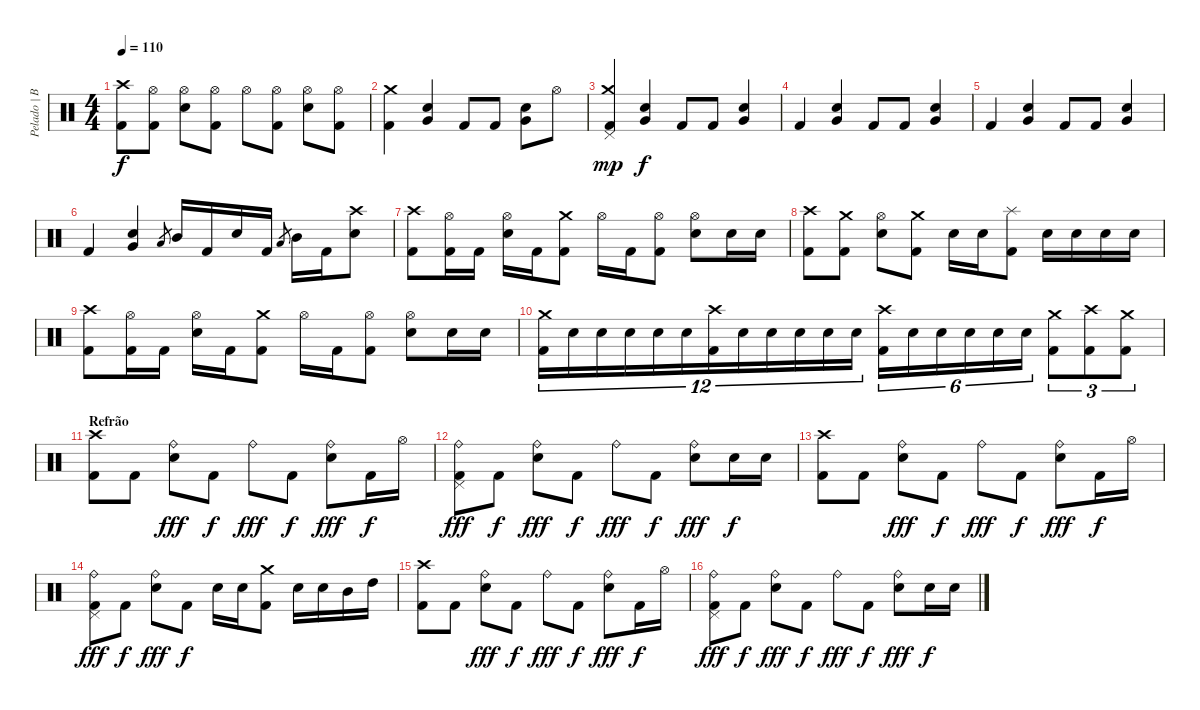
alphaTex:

\track ("Pelado | Bateria" "Pelado | B") {instrument percussion}
\staff {score}
\articulation defaults
\ts (4 4)
\tempo 110
\clef neutral
\ks c
("Crash high (hit)" "Kick (hit) 2").8{dy f} ("Hi-Hat (open)" "Kick (hit) 2").8 ("Hi-Hat (open)" "Snare (hit) 2").8 ("Hi-Hat (open)" "Kick (hit) 2").8 "Hi-Hat (open)".8 ("Hi-Hat (open)" "Kick (hit) 2").8 ("Hi-Hat (open)" "Snare (hit) 2").8 ("Hi-Hat (open)" "Kick (hit) 2").8 |
("Crash medium (hit)" "Kick (hit) 2").4 ("Very Low Tom (hit)" "Snare (hit) 2").4 "Kick (hit) 2".8 "Kick (hit) 2".8 ("Very Low Tom (hit)" "Snare (hit) 2").8 "Hi-Hat (open)".8 |
("Crash medium (hit)" "Pedal Hi-Hat (hit)" "Kick (hit) 2").4{dy mp} ("Very Low Tom (hit)" "Snare (hit) 2").4{dy f} "Kick (hit) 2".8 "Kick (hit) 2".8 ("Very Low Tom (hit)" "Snare (hit) 2").4 |
"Kick (hit) 2".4 ("Very Low Tom (hit)" "Snare (hit) 2").4 "Kick (hit) 2".8 "Kick (hit) 2".8 ("Very Low Tom (hit)" "Snare (hit) 2").4 |
"Kick (hit) 2".4 ("Very Low Tom (hit)" "Snare (hit) 2").4 "Kick (hit) 2".8 "Kick (hit) 2".8 ("Very Low Tom (hit)" "Snare (hit) 2").4 |
"Kick (hit) 2".4 ("Very Low Tom (hit)" "Snare (hit) 2").4 "Low Tom (hit)".8{gr} "Mid Tom (hit)".16 "Kick (hit) 2".16 "Snare (hit) 2".16 "Kick (hit) 2".16 "Low Tom (hit)".8{gr} "Mid Tom (hit)".16 "Kick (hit) 2".16 ("Crash high (hit)" "Snare (hit) 2").8 |
("Crash high (hit)" "Kick (hit) 2").8 ("Hi-Hat (open)" "Kick (hit) 2").16 "Kick (hit) 2".16 ("Hi-Hat (open)" "Snare (hit) 2").16 "Kick (hit) 2".16 ("Crash medium (hit)" "Kick (hit) 2").8 "Hi-Hat (open)".16 "Kick (hit) 2".16 ("Hi-Hat (open)" "Kick (hit) 2").8 ("Hi-Hat (open)" "Snare (hit) 2").8 "Snare (hit) 2".16 "Snare (hit) 2".16 |
("Crash high (hit)" "Kick (hit) 2").8 ("Crash medium (hit)" "Kick (hit) 2").8 ("Hi-Hat (open)" "Snare (hit) 2").8 ("Crash medium (hit)" "Kick (hit) 2").8 "Snare (hit) 2".16 "Snare (hit) 2".16 ("Splash (hit)" "Kick (hit) 2").8 "Snare (hit) 2".16 "Snare (hit) 2".16 "Snare (hit) 2".16 "Snare (hit) 2".16 |
("Crash high (hit)" "Kick (hit) 2").8 ("Hi-Hat (open)" "Kick (hit) 2").16 "Kick (hit) 2".16 ("Hi-Hat (open)" "Snare (hit) 2").16 "Kick (hit) 2".16 ("Crash medium (hit)" "Kick (hit) 2").8 "Hi-Hat (open)".16 "Kick (hit) 2".16 ("Hi-Hat (open)" "Kick (hit) 2").8 ("Hi-Hat (open)" "Snare (hit) 2").8 "Snare (hit) 2".16 "Snare (hit) 2".16 |
("Crash medium (hit)" "Kick (hit) 2").16{tu (12 8)} "Snare (hit) 2".16{tu (12 8)} "Snare (hit) 2".16{tu (12 8)} "Snare (hit) 2".16{tu (12 8)} "Snare (hit) 2".16{tu (12 8)} "Snare (hit) 2".16{tu (12 8)} ("Crash high (hit)" "Kick (hit) 2").16{tu (12 8)} "Snare (hit) 2".16{tu (12 8)} "Snare (hit) 2".16{tu (12 8)} "Snare (hit) 2".16{tu (12 8)} "Snare (hit) 2".16{tu (12 8)} "Snare (hit) 2".16{tu (12 8)} ("Crash high (hit)" "Kick (hit) 2").16{tu (6 4)} "Snare (hit) 2".16{tu (6 4)} "Snare (hit) 2".16{tu (6 4)} "Snare (hit) 2".16{tu (6 4)} "Snare (hit) 2".16{tu (6 4)} "Snare (hit) 2".16{tu (6 4)} ("Crash medium (hit)" "Kick (hit) 2").8{tu (3 2)} ("Crash high (hit)" "Kick (hit) 2").8{tu (3 2)} ("Crash medium (hit)" "Kick (hit) 2").8{tu (3 2)} |
\section ("" "Refrão")
("Crash high (hit)" "Kick (hit) 2").8 "Kick (hit) 2".8 ("Ride (bell)" "Snare (hit) 2").8{dy fff} "Kick (hit) 2".8{dy f} "Ride (bell)".8{dy fff} "Kick (hit) 2".8{dy f} ("Ride (bell)" "Snare (hit) 2").8{dy fff} "Kick (hit) 2".16{dy f} "Hi-Hat (open)".16 |
("Ride (bell)" "Pedal Hi-Hat (hit)" "Kick (hit) 2").8{dy fff} "Kick (hit) 2".8{dy f} ("Ride (bell)" "Snare (hit) 2").8{dy fff} "Kick (hit) 2".8{dy f} "Ride (bell)".8{dy fff} "Kick (hit) 2".8{dy f} ("Ride (bell)" "Snare (hit) 2").8{dy fff} "Snare (hit) 2".16{dy f} "Snare (hit) 2".16 |
("Crash high (hit)" "Kick (hit) 2").8 "Kick (hit) 2".8 ("Ride (bell)" "Snare (hit) 2").8{dy fff} "Kick (hit) 2".8{dy f} "Ride (bell)".8{dy fff} "Kick (hit) 2".8{dy f} ("Ride (bell)" "Snare (hit) 2").8{dy fff} "Kick (hit) 2".16{dy f} "Hi-Hat (open)".16 |
("Ride (bell)" "Pedal Hi-Hat (hit)" "Kick (hit) 2").8{dy fff} "Kick (hit) 2".8{dy f} ("Ride (bell)" "Snare (hit) 2").8{dy fff} "Kick (hit) 2".8{dy f} "Snare (hit) 2".16 "Snare (hit) 2".16 ("Crash medium (hit)" "Kick (hit) 2").8 "Snare (hit) 2".16 "Snare (hit) 2".16 "Mid Tom (hit)".16 "High Tom (hit)".16 |
("Crash high (hit)" "Kick (hit) 2").8 "Kick (hit) 2".8 ("Ride (bell)" "Snare (hit) 2").8{dy fff} "Kick (hit) 2".8{dy f} "Ride (bell)".8{dy fff} "Kick (hit) 2".8{dy f} ("Ride (bell)" "Snare (hit) 2").8{dy fff} "Kick (hit) 2".16{dy f} "Hi-Hat (open)".16 |
("Ride (bell)" "Pedal Hi-Hat (hit)" "Kick (hit) 2").8{dy fff} "Kick (hit) 2".8{dy f} ("Ride (bell)" "Snare (hit) 2").8{dy fff} "Kick (hit) 2".8{dy f} "Ride (bell)".8{dy fff} "Kick (hit) 2".8{dy f} ("Ride (bell)" "Snare (hit) 2").8{dy fff} "Snare (hit) 2".16{dy f} "Snare (hit) 2".16
